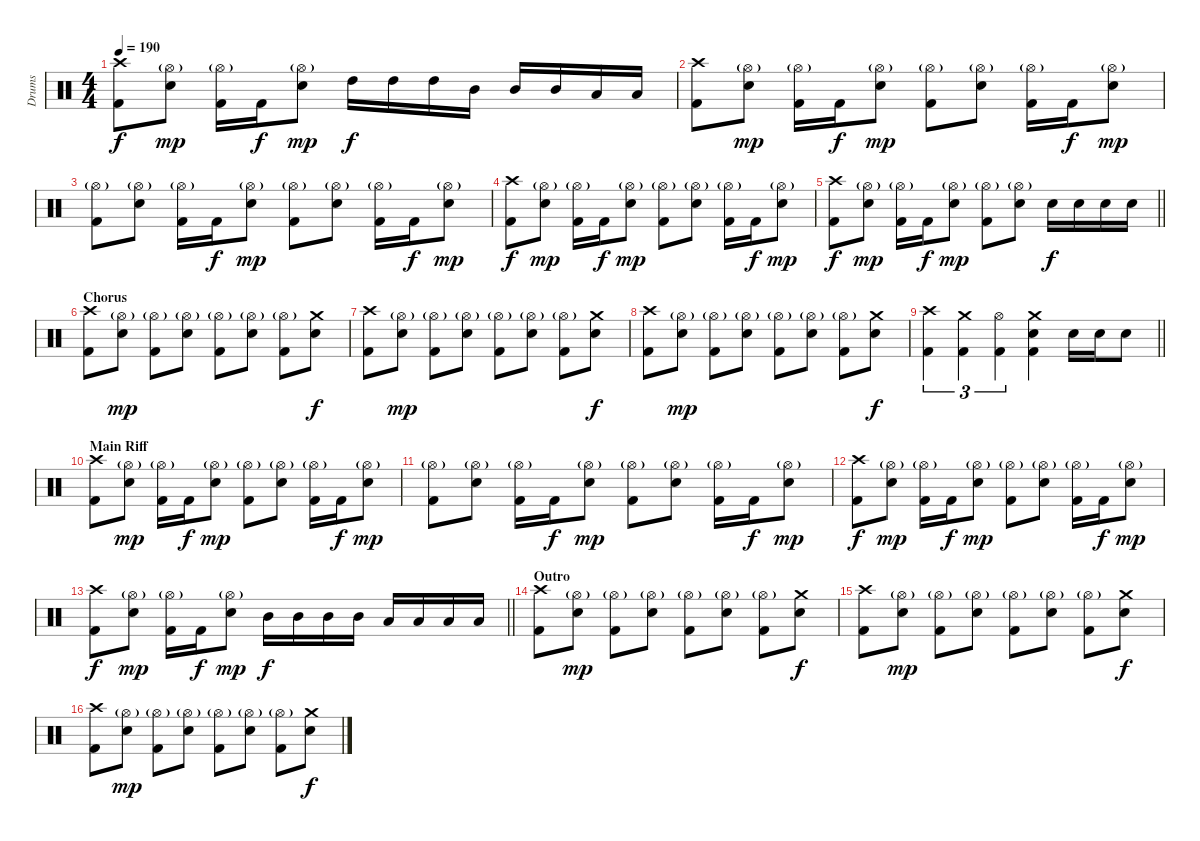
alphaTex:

\track ("Drums" "Drums") {instrument percussion}
\staff {score}
\articulation defaults
\ts (4 4)
\tempo 190
\clef neutral
\ks c
("Crash high (hit)" "Kick (hit) 2").8{dy f} ("Hi-Hat (open)"{g} "Electric Snare (hit)").8{dy mp} ("Hi-Hat (open)"{g} "Kick (hit) 2").16 "Kick (hit) 2".16{dy f} ("Hi-Hat (open)"{g} "Electric Snare (hit)").8{dy mp} "High Tom (hit)".16{dy f} "High Tom (hit)".16 "High Tom (hit)".16 "Mid Tom (hit)".16 "Mid Tom (hit)".16 "Mid Tom (hit)".16 "Low Tom (hit)".16 "Low Tom (hit)".16 |
("Crash high (hit)" "Kick (hit) 2").8 ("Hi-Hat (open)"{g} "Electric Snare (hit)").8{dy mp} ("Hi-Hat (open)"{g} "Kick (hit) 2").16 "Kick (hit) 2".16{dy f} ("Hi-Hat (open)"{g} "Electric Snare (hit)").8{dy mp} ("Hi-Hat (open)"{g} "Kick (hit) 2").8 ("Hi-Hat (open)"{g} "Electric Snare (hit)").8 ("Hi-Hat (open)"{g} "Kick (hit) 2").16 "Kick (hit) 2".16{dy f} ("Hi-Hat (open)"{g} "Electric Snare (hit)").8{dy mp} |
("Hi-Hat (open)"{g} "Kick (hit) 2").8 ("Hi-Hat (open)"{g} "Electric Snare (hit)").8 ("Hi-Hat (open)"{g} "Kick (hit) 2").16 "Kick (hit) 2".16{dy f} ("Hi-Hat (open)"{g} "Electric Snare (hit)").8{dy mp} ("Hi-Hat (open)"{g} "Kick (hit) 2").8 ("Hi-Hat (open)"{g} "Electric Snare (hit)").8 ("Hi-Hat (open)"{g} "Kick (hit) 2").16 "Kick (hit) 2".16{dy f} ("Hi-Hat (open)"{g} "Electric Snare (hit)").8{dy mp} |
("Crash high (hit)" "Kick (hit) 2").8{dy f} ("Hi-Hat (open)"{g} "Electric Snare (hit)").8{dy mp} ("Hi-Hat (open)"{g} "Kick (hit) 2").16 "Kick (hit) 2".16{dy f} ("Hi-Hat (open)"{g} "Electric Snare (hit)").8{dy mp} ("Hi-Hat (open)"{g} "Kick (hit) 2").8 ("Hi-Hat (open)"{g} "Electric Snare (hit)").8 ("Hi-Hat (open)"{g} "Kick (hit) 2").16 "Kick (hit) 2".16{dy f} ("Hi-Hat (open)"{g} "Electric Snare (hit)").8{dy mp} |
\barLineRight lightlight
("Crash high (hit)" "Kick (hit) 2").8{dy f} ("Hi-Hat (open)"{g} "Electric Snare (hit)").8{dy mp} ("Hi-Hat (open)"{g} "Kick (hit) 2").16 "Kick (hit) 2".16{dy f} ("Hi-Hat (open)"{g} "Electric Snare (hit)").8{dy mp} ("Hi-Hat (open)"{g} "Kick (hit) 2").8 ("Hi-Hat (open)"{g} "Electric Snare (hit)").8 "Electric Snare (hit)".16{dy f} "Electric Snare (hit)".16 "Electric Snare (hit)".16 "Electric Snare (hit)".16 |
\section ("" "Chorus")
("Crash high (hit)" "Kick (hit) 2").8 ("Hi-Hat (open)"{g} "Electric Snare (hit)").8{dy mp} ("Hi-Hat (open)"{g} "Kick (hit) 2").8 ("Hi-Hat (open)"{g} "Electric Snare (hit)").8 ("Hi-Hat (open)"{g} "Kick (hit) 2").8 ("Hi-Hat (open)"{g} "Electric Snare (hit)").8 ("Hi-Hat (open)"{g} "Kick (hit) 2").8 ("Crash medium (hit)" "Electric Snare (hit)").8{dy f} |
("Crash high (hit)" "Kick (hit) 2").8 ("Hi-Hat (open)"{g} "Electric Snare (hit)").8{dy mp} ("Hi-Hat (open)"{g} "Kick (hit) 2").8 ("Hi-Hat (open)"{g} "Electric Snare (hit)").8 ("Hi-Hat (open)"{g} "Kick (hit) 2").8 ("Hi-Hat (open)"{g} "Electric Snare (hit)").8 ("Hi-Hat (open)"{g} "Kick (hit) 2").8 ("Crash medium (hit)" "Electric Snare (hit)").8{dy f} |
("Crash high (hit)" "Kick (hit) 2").8 ("Hi-Hat (open)"{g} "Electric Snare (hit)").8{dy mp} ("Hi-Hat (open)"{g} "Kick (hit) 2").8 ("Hi-Hat (open)"{g} "Electric Snare (hit)").8 ("Hi-Hat (open)"{g} "Kick (hit) 2").8 ("Hi-Hat (open)"{g} "Electric Snare (hit)").8 ("Hi-Hat (open)"{g} "Kick (hit) 2").8 ("Crash medium (hit)" "Electric Snare (hit)").8{dy f} |
\barLineRight lightlight
("Crash high (hit)" "Kick (hit) 2").4{tu (3 2)} ("Crash medium (hit)" "Kick (hit) 2").4{tu (3 2)} ("Hi-Hat (open)" "Kick (hit) 2").4{tu (3 2)} ("Crash medium (hit)" "Electric Snare (hit)" "Kick (hit) 2").4 "Electric Snare (hit)".16 "Electric Snare (hit)".16 "Electric Snare (hit)".8 |
\section ("" "Main Riff")
("Crash high (hit)" "Kick (hit) 2").8 ("Hi-Hat (open)"{g} "Electric Snare (hit)").8{dy mp} ("Hi-Hat (open)"{g} "Kick (hit) 2").16 "Kick (hit) 2".16{dy f} ("Hi-Hat (open)"{g} "Electric Snare (hit)").8{dy mp} ("Hi-Hat (open)"{g} "Kick (hit) 2").8 ("Hi-Hat (open)"{g} "Electric Snare (hit)").8 ("Hi-Hat (open)"{g} "Kick (hit) 2").16 "Kick (hit) 2".16{dy f} ("Hi-Hat (open)"{g} "Electric Snare (hit)").8{dy mp} |
("Hi-Hat (open)"{g} "Kick (hit) 2").8 ("Hi-Hat (open)"{g} "Electric Snare (hit)").8 ("Hi-Hat (open)"{g} "Kick (hit) 2").16 "Kick (hit) 2".16{dy f} ("Hi-Hat (open)"{g} "Electric Snare (hit)").8{dy mp} ("Hi-Hat (open)"{g} "Kick (hit) 2").8 ("Hi-Hat (open)"{g} "Electric Snare (hit)").8 ("Hi-Hat (open)"{g} "Kick (hit) 2").16 "Kick (hit) 2".16{dy f} ("Hi-Hat (open)"{g} "Electric Snare (hit)").8{dy mp} |
("Crash high (hit)" "Kick (hit) 2").8{dy f} ("Hi-Hat (open)"{g} "Electric Snare (hit)").8{dy mp} ("Hi-Hat (open)"{g} "Kick (hit) 2").16 "Kick (hit) 2".16{dy f} ("Hi-Hat (open)"{g} "Electric Snare (hit)").8{dy mp} ("Hi-Hat (open)"{g} "Kick (hit) 2").8 ("Hi-Hat (open)"{g} "Electric Snare (hit)").8 ("Hi-Hat (open)"{g} "Kick (hit) 2").16 "Kick (hit) 2".16{dy f} ("Hi-Hat (open)"{g} "Electric Snare (hit)").8{dy mp} |
\barLineRight lightlight
("Crash high (hit)" "Kick (hit) 2").8{dy f} ("Hi-Hat (open)"{g} "Electric Snare (hit)").8{dy mp} ("Hi-Hat (open)"{g} "Kick (hit) 2").16 "Kick (hit) 2".16{dy f} ("Hi-Hat (open)"{g} "Electric Snare (hit)").8{dy mp} "Mid Tom (hit)".16{dy f} "Mid Tom (hit)".16 "Mid Tom (hit)".16 "Mid Tom (hit)".16 "Low Tom (hit)".16 "Low Tom (hit)".16 "Low Tom (hit)".16 "Low Tom (hit)".16 |
\section ("" "Outro")
("Crash high (hit)" "Kick (hit) 2").8 ("Hi-Hat (open)"{g} "Electric Snare (hit)").8{dy mp} ("Hi-Hat (open)"{g} "Kick (hit) 2").8 ("Hi-Hat (open)"{g} "Electric Snare (hit)").8 ("Hi-Hat (open)"{g} "Kick (hit) 2").8 ("Hi-Hat (open)"{g} "Electric Snare (hit)").8 ("Hi-Hat (open)"{g} "Kick (hit) 2").8 ("Crash medium (hit)" "Electric Snare (hit)").8{dy f} |
("Crash high (hit)" "Kick (hit) 2").8 ("Hi-Hat (open)"{g} "Electric Snare (hit)").8{dy mp} ("Hi-Hat (open)"{g} "Kick (hit) 2").8 ("Hi-Hat (open)"{g} "Electric Snare (hit)").8 ("Hi-Hat (open)"{g} "Kick (hit) 2").8 ("Hi-Hat (open)"{g} "Electric Snare (hit)").8 ("Hi-Hat (open)"{g} "Kick (hit) 2").8 ("Crash medium (hit)" "Electric Snare (hit)").8{dy f} |
("Crash high (hit)" "Kick (hit) 2").8 ("Hi-Hat (open)"{g} "Electric Snare (hit)").8{dy mp} ("Hi-Hat (open)"{g} "Kick (hit) 2").8 ("Hi-Hat (open)"{g} "Electric Snare (hit)").8 ("Hi-Hat (open)"{g} "Kick (hit) 2").8 ("Hi-Hat (open)"{g} "Electric Snare (hit)").8 ("Hi-Hat (open)"{g} "Kick (hit) 2").8 ("Crash medium (hit)" "Electric Snare (hit)").8{dy f}
